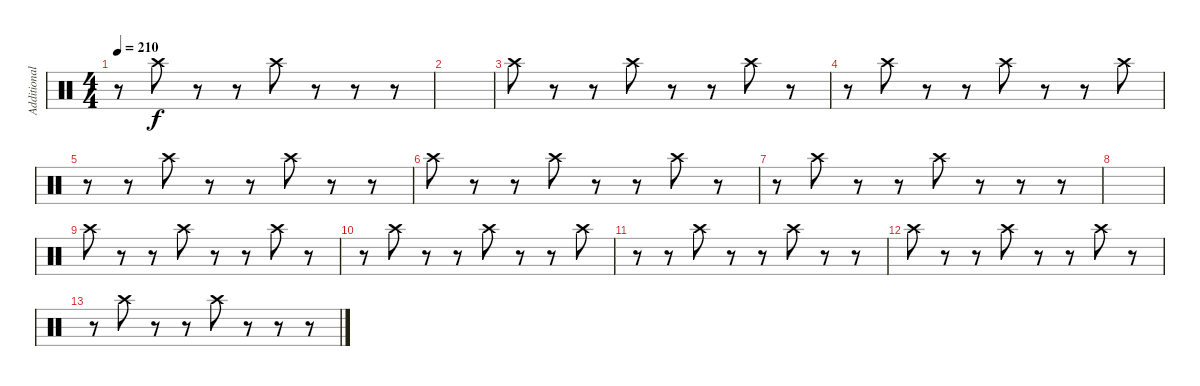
\track ("Additional drums" "Additional") {instrument percussion}
\staff {score}
\articulation defaults
\ts (4 4)
\tempo 210
\clef neutral
\ks c
r.8{dy f} "Crash high (hit)".8 r.8 r.8 "Crash high (hit)".8 r.8 r.8 r.8 |
|
"Crash high (hit)".8 r.8 r.8 "Crash high (hit)".8 r.8 r.8 "Crash high (hit)".8 r.8 |
r.8 "Crash high (hit)".8 r.8 r.8 "Crash high (hit)".8 r.8 r.8 "Crash high (hit)".8 |
r.8 r.8 "Crash high (hit)".8 r.8 r.8 "Crash high (hit)".8 r.8 r.8 |
"Crash high (hit)".8 r.8 r.8 "Crash high (hit)".8 r.8 r.8 "Crash high (hit)".8 r.8 |
r.8 "Crash high (hit)".8 r.8 r.8 "Crash high (hit)".8 r.8 r.8 r.8 |
|
"Crash high (hit)".8 r.8 r.8 "Crash high (hit)".8 r.8 r.8 "Crash high (hit)".8 r.8 |
r.8 "Crash high (hit)".8 r.8 r.8 "Crash high (hit)".8 r.8 r.8 "Crash high (hit)".8 |
r.8 r.8 "Crash high (hit)".8 r.8 r.8 "Crash high (hit)".8 r.8 r.8 |
"Crash high (hit)".8 r.8 r.8 "Crash high (hit)".8 r.8 r.8 "Crash high (hit)".8 r.8 |
r.8 "Crash high (hit)".8 r.8 r.8 "Crash high (hit)".8 r.8 r.8 r.8
